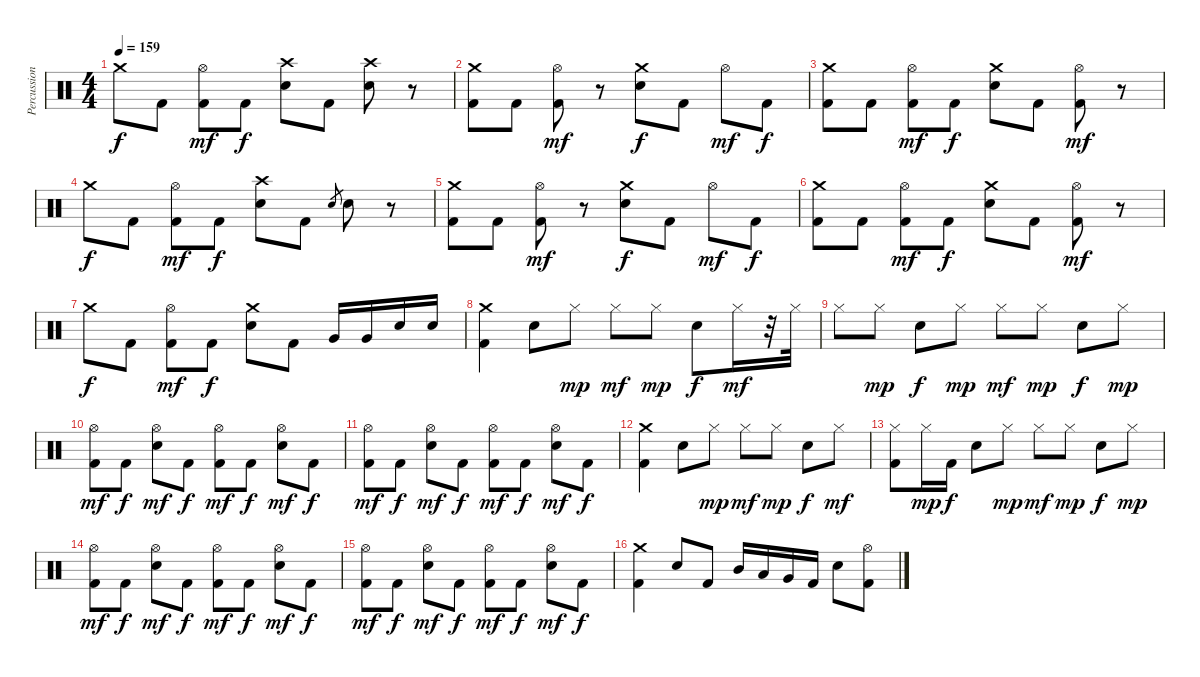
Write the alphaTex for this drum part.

\track ("Percussion" "Percussion") {instrument percussion}
\staff {score}
\articulation defaults
\ts (4 4)
\tempo 159
\clef neutral
\ks c "Crash medium (hit)".8{dy f} "Kick (hit) 2".8
("Hi-Hat (open)" "Kick (hit) 2").8{dy mf} "Kick (hit) 2".8{dy f} ("Crash high (hit)" "Electric Snare (hit)").8 "Kick (hit) 2".8 ("Crash high (hit)" "Electric Snare (hit)").8 r.8 |
("Crash medium (hit)" "Kick (hit) 2").8 "Kick (hit) 2".8 ("Hi-Hat (open)" "Kick (hit) 2").8{dy mf} r.8 ("Crash medium (hit)" "Electric Snare (hit)").8{dy f} "Kick (hit) 2".8 "Hi-Hat (open)".8{dy mf} "Kick (hit) 2".8{dy f} |
("Crash medium (hit)" "Kick (hit) 2").8 "Kick (hit) 2".8 ("Hi-Hat (open)" "Kick (hit) 2").8{dy mf} "Kick (hit) 2".8{dy f} ("Crash medium (hit)" "Electric Snare (hit)").8 "Kick (hit) 2".8 ("Hi-Hat (open)" "Kick (hit) 2").8{dy mf} r.8 |
"Crash medium (hit)".8{dy f} "Kick (hit) 2".8 ("Hi-Hat (open)" "Kick (hit) 2").8{dy mf} "Kick (hit) 2".8{dy f} ("Crash high (hit)" "Electric Snare (hit)").8 "Kick (hit) 2".8 "Electric Snare (hit)".8{gr} "Electric Snare (hit)".8 r.8 |
("Crash medium (hit)" "Kick (hit) 2").8 "Kick (hit) 2".8 ("Hi-Hat (open)" "Kick (hit) 2").8{dy mf} r.8 ("Crash medium (hit)" "Electric Snare (hit)").8{dy f} "Kick (hit) 2".8 "Hi-Hat (open)".8{dy mf} "Kick (hit) 2".8{dy f} |
("Crash medium (hit)" "Kick (hit) 2").8 "Kick (hit) 2".8 ("Hi-Hat (open)" "Kick (hit) 2").8{dy mf} "Kick (hit) 2".8{dy f} ("Crash medium (hit)" "Electric Snare (hit)").8 "Kick (hit) 2".8 ("Hi-Hat (open)" "Kick (hit) 2").8{dy mf} r.8 |
"Crash medium (hit)".8{dy f} "Kick (hit) 2".8 ("Hi-Hat (open)" "Kick (hit) 2").8{dy mf} "Kick (hit) 2".8{dy f} ("Crash medium (hit)" "Electric Snare (hit)").8 "Kick (hit) 2".8 "Very Low Tom (hit)".16 "Very Low Tom (hit)".16 "Electric Snare (hit)".16 "Electric Snare (hit)".16 |
("Crash medium (hit)" "Kick (hit) 2").4 "Electric Snare (hit)".8 "Hi-Hat (closed)".8{dy mp} "Hi-Hat (closed)".8{dy mf} "Hi-Hat (closed)".8{dy mp} "Electric Snare (hit)".8{dy f} "Hi-Hat (closed)".16{dy mf} r.32 "Hi-Hat (closed)".32 |
"Hi-Hat (closed)".8 "Hi-Hat (closed)".8{dy mp} "Electric Snare (hit)".8{dy f} "Hi-Hat (closed)".8{dy mp} "Hi-Hat (closed)".8{dy mf} "Hi-Hat (closed)".8{dy mp} "Electric Snare (hit)".8{dy f} "Hi-Hat (closed)".8{dy mp} |
("Hi-Hat (open)" "Kick (hit) 2").8{dy mf} "Kick (hit) 2".8{dy f} ("Hi-Hat (open)" "Electric Snare (hit)").8{dy mf} "Kick (hit) 2".8{dy f} ("Hi-Hat (open)" "Kick (hit) 2").8{dy mf} "Kick (hit) 2".8{dy f} ("Hi-Hat (open)" "Electric Snare (hit)").8{dy mf} "Kick (hit) 2".8{dy f} |
("Hi-Hat (open)" "Kick (hit) 2").8{dy mf} "Kick (hit) 2".8{dy f} ("Hi-Hat (open)" "Electric Snare (hit)").8{dy mf} "Kick (hit) 2".8{dy f} ("Hi-Hat (open)" "Kick (hit) 2").8{dy mf} "Kick (hit) 2".8{dy f} ("Hi-Hat (open)" "Electric Snare (hit)").8{dy mf} "Kick (hit) 2".8{dy f} |
("Crash medium (hit)" "Kick (hit) 2").4 "Electric Snare (hit)".8 "Hi-Hat (closed)".8{dy mp} "Hi-Hat (closed)".8{dy mf} "Hi-Hat (closed)".8{dy mp} "Electric Snare (hit)".8{dy f} "Hi-Hat (closed)".8{dy mf} |
("Hi-Hat (closed)" "Kick (hit) 2").8 "Hi-Hat (closed)".16{dy mp} "Kick (hit) 2".16{dy f} "Electric Snare (hit)".8 "Hi-Hat (closed)".8{dy mp} "Hi-Hat (closed)".8{dy mf} "Hi-Hat (closed)".8{dy mp} "Electric Snare (hit)".8{dy f} "Hi-Hat (closed)".8{dy mp} |
("Hi-Hat (open)" "Kick (hit) 2").8{dy mf} "Kick (hit) 2".8{dy f} ("Hi-Hat (open)" "Electric Snare (hit)").8{dy mf} "Kick (hit) 2".8{dy f} ("Hi-Hat (open)" "Kick (hit) 2").8{dy mf} "Kick (hit) 2".8{dy f} ("Hi-Hat (open)" "Electric Snare (hit)").8{dy mf} "Kick (hit) 2".8{dy f} |
("Hi-Hat (open)" "Kick (hit) 2").8{dy mf} "Kick (hit) 2".8{dy f} ("Hi-Hat (open)" "Electric Snare (hit)").8{dy mf} "Kick (hit) 2".8{dy f} ("Hi-Hat (open)" "Kick (hit) 2").8{dy mf} "Kick (hit) 2".8{dy f} ("Hi-Hat (open)" "Electric Snare (hit)").8{dy mf} "Kick (hit) 2".8{dy f} |
("Crash medium (hit)" "Kick (hit) 2").4 "Electric Snare (hit)".8 "Kick (hit) 2".8 "Mid Tom (hit)".16 "Low Tom (hit)".16 "Very Low Tom (hit)".16 "Kick (hit) 2".16 "Electric Snare (hit)".8 ("Hi-Hat (open)" "Kick (hit) 2").8
